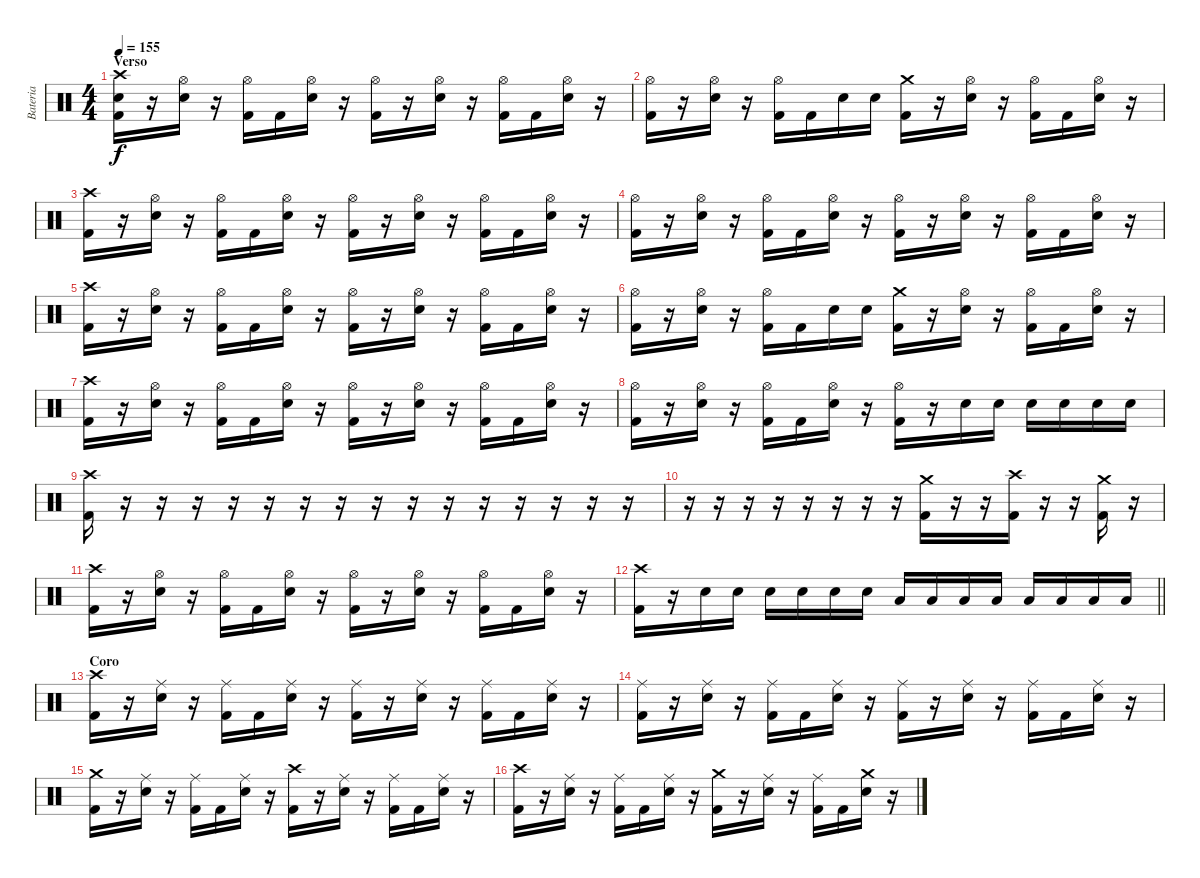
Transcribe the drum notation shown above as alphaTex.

\track ("Bateria" "Bateria") {instrument percussion}
\staff {score}
\articulation defaults
\ts (4 4)
\section ("" "Verso")
\tempo 155
\clef neutral
\ks c
("Crash high (hit)" "Snare (hit) 2" "Kick (hit) 2").16{dy f} r.16 ("Hi-Hat (open)" "Snare (hit) 2").16 r.16 ("Hi-Hat (open)" "Kick (hit) 2").16 "Kick (hit) 2".16 ("Hi-Hat (open)" "Snare (hit) 2").16 r.16 ("Hi-Hat (open)" "Kick (hit) 2").16 r.16 ("Hi-Hat (open)" "Snare (hit) 2").16 r.16 ("Hi-Hat (open)" "Kick (hit) 2").16 "Kick (hit) 2".16 ("Hi-Hat (open)" "Snare (hit) 2").16 r.16 |
("Hi-Hat (open)" "Kick (hit) 2").16 r.16 ("Hi-Hat (open)" "Snare (hit) 2").16 r.16 ("Hi-Hat (open)" "Kick (hit) 2").16 "Kick (hit) 2".16 "Snare (hit) 2".16 "Snare (hit) 2".16 ("Crash medium (hit)" "Kick (hit) 2").16 r.16 ("Hi-Hat (open)" "Snare (hit) 2").16 r.16 ("Hi-Hat (open)" "Kick (hit) 2").16 "Kick (hit) 2".16 ("Hi-Hat (open)" "Snare (hit) 2").16 r.16 |
("Crash high (hit)" "Kick (hit) 2").16 r.16 ("Hi-Hat (open)" "Snare (hit) 2").16 r.16 ("Hi-Hat (open)" "Kick (hit) 2").16 "Kick (hit) 2".16 ("Hi-Hat (open)" "Snare (hit) 2").16 r.16 ("Hi-Hat (open)" "Kick (hit) 2").16 r.16 ("Hi-Hat (open)" "Snare (hit) 2").16 r.16 ("Hi-Hat (open)" "Kick (hit) 2").16 "Kick (hit) 2".16 ("Hi-Hat (open)" "Snare (hit) 2").16 r.16 |
("Hi-Hat (open)" "Kick (hit) 2").16 r.16 ("Hi-Hat (open)" "Snare (hit) 2").16 r.16 ("Hi-Hat (open)" "Kick (hit) 2").16 "Kick (hit) 2".16 ("Hi-Hat (open)" "Snare (hit) 2").16 r.16 ("Hi-Hat (open)" "Kick (hit) 2").16 r.16 ("Hi-Hat (open)" "Snare (hit) 2").16 r.16 ("Hi-Hat (open)" "Kick (hit) 2").16 "Kick (hit) 2".16 ("Hi-Hat (open)" "Snare (hit) 2").16 r.16 |
("Crash high (hit)" "Kick (hit) 2").16 r.16 ("Hi-Hat (open)" "Snare (hit) 2").16 r.16 ("Hi-Hat (open)" "Kick (hit) 2").16 "Kick (hit) 2".16 ("Hi-Hat (open)" "Snare (hit) 2").16 r.16 ("Hi-Hat (open)" "Kick (hit) 2").16 r.16 ("Hi-Hat (open)" "Snare (hit) 2").16 r.16 ("Hi-Hat (open)" "Kick (hit) 2").16 "Kick (hit) 2".16 ("Hi-Hat (open)" "Snare (hit) 2").16 r.16 |
("Hi-Hat (open)" "Kick (hit) 2").16 r.16 ("Hi-Hat (open)" "Snare (hit) 2").16 r.16 ("Hi-Hat (open)" "Kick (hit) 2").16 "Kick (hit) 2".16 "Snare (hit) 2".16 "Snare (hit) 2".16 ("Crash medium (hit)" "Kick (hit) 2").16 r.16 ("Hi-Hat (open)" "Snare (hit) 2").16 r.16 ("Hi-Hat (open)" "Kick (hit) 2").16 "Kick (hit) 2".16 ("Hi-Hat (open)" "Snare (hit) 2").16 r.16 |
("Crash high (hit)" "Kick (hit) 2").16 r.16 ("Hi-Hat (open)" "Snare (hit) 2").16 r.16 ("Hi-Hat (open)" "Kick (hit) 2").16 "Kick (hit) 2".16 ("Hi-Hat (open)" "Snare (hit) 2").16 r.16 ("Hi-Hat (open)" "Kick (hit) 2").16 r.16 ("Hi-Hat (open)" "Snare (hit) 2").16 r.16 ("Hi-Hat (open)" "Kick (hit) 2").16 "Kick (hit) 2".16 ("Hi-Hat (open)" "Snare (hit) 2").16 r.16 |
("Hi-Hat (open)" "Kick (hit) 2").16 r.16 ("Hi-Hat (open)" "Snare (hit) 2").16 r.16 ("Hi-Hat (open)" "Kick (hit) 2").16 "Kick (hit) 2".16 ("Hi-Hat (open)" "Snare (hit) 2").16 r.16 ("Hi-Hat (open)" "Kick (hit) 2").16 r.16 "Snare (hit) 2".16 "Snare (hit) 2".16 "Snare (hit) 2".16 "Snare (hit) 2".16 "Snare (hit) 2".16 "Snare (hit) 2".16 |
("Crash high (hit)" "Kick (hit) 2").16 r.16 r.16 r.16 r.16 r.16 r.16 r.16 r.16 r.16 r.16 r.16 r.16 r.16 r.16 r.16 |
r.16 r.16 r.16 r.16 r.16 r.16 r.16 r.16 ("Crash medium (hit)" "Kick (hit) 2").16 r.16 r.16 ("Crash high (hit)" "Kick (hit) 2").16 r.16 r.16 ("Crash medium (hit)" "Kick (hit) 2").16 r.16 |
("Crash high (hit)" "Kick (hit) 2").16 r.16 ("Hi-Hat (open)" "Snare (hit) 2").16 r.16 ("Hi-Hat (open)" "Kick (hit) 2").16 "Kick (hit) 2".16 ("Hi-Hat (open)" "Snare (hit) 2").16 r.16 ("Hi-Hat (open)" "Kick (hit) 2").16 r.16 ("Hi-Hat (open)" "Snare (hit) 2").16 r.16 ("Hi-Hat (open)" "Kick (hit) 2").16 "Kick (hit) 2".16 ("Hi-Hat (open)" "Snare (hit) 2").16 r.16 |
\barLineRight lightlight
("Crash high (hit)" "Kick (hit) 2").16 r.16 "Snare (hit) 2".16 "Snare (hit) 2".16 "Snare (hit) 2".16 "Snare (hit) 2".16 "Snare (hit) 2".16 "Snare (hit) 2".16 "Low Tom (hit)".16 "Low Tom (hit)".16 "Low Tom (hit)".16 "Low Tom (hit)".16 "Low Floor Tom (hit)".16 "Low Floor Tom (hit)".16 "Low Floor Tom (hit)".16 "Low Floor Tom (hit)".16 |
\section ("" "Coro")
("Crash high (hit)" "Kick (hit) 2").16 r.16 ("Ride (middle)" "Snare (hit) 2").16 r.16 ("Ride (middle)" "Kick (hit) 2").16 "Kick (hit) 2".16 ("Ride (middle)" "Snare (hit) 2").16 r.16 ("Ride (middle)" "Kick (hit) 2").16 r.16 ("Ride (middle)" "Snare (hit) 2").16 r.16 ("Ride (middle)" "Kick (hit) 2").16 "Kick (hit) 2".16 ("Ride (middle)" "Snare (hit) 2").16 r.16 |
("Ride (middle)" "Kick (hit) 2").16 r.16 ("Ride (middle)" "Snare (hit) 2").16 r.16 ("Ride (middle)" "Kick (hit) 2").16 "Kick (hit) 2".16 ("Ride (middle)" "Snare (hit) 2").16 r.16 ("Ride (middle)" "Kick (hit) 2").16 r.16 ("Ride (middle)" "Snare (hit) 2").16 r.16 ("Ride (middle)" "Kick (hit) 2").16 "Kick (hit) 2".16 ("Ride (middle)" "Snare (hit) 2").16 r.16 |
("Crash medium (hit)" "Kick (hit) 2").16 r.16 ("Ride (middle)" "Snare (hit) 2").16 r.16 ("Ride (middle)" "Kick (hit) 2").16 "Kick (hit) 2".16 ("Ride (middle)" "Snare (hit) 2").16 r.16 ("Crash high (hit)" "Kick (hit) 2").16 r.16 ("Ride (middle)" "Snare (hit) 2").16 r.16 ("Ride (middle)" "Kick (hit) 2").16 "Kick (hit) 2".16 ("Ride (middle)" "Snare (hit) 2").16 r.16 |
("Crash high (hit)" "Kick (hit) 2").16 r.16 ("Ride (middle)" "Snare (hit) 2").16 r.16 ("Ride (middle)" "Kick (hit) 2").16 "Kick (hit) 2".16 ("Ride (middle)" "Snare (hit) 2").16 r.16 ("Crash medium (hit)" "Kick (hit) 2").16 r.16 ("Ride (middle)" "Snare (hit) 2").16 r.16 ("Ride (middle)" "Kick (hit) 2").16 "Kick (hit) 2".16 ("Crash medium (hit)" "Snare (hit) 2").16 r.16
